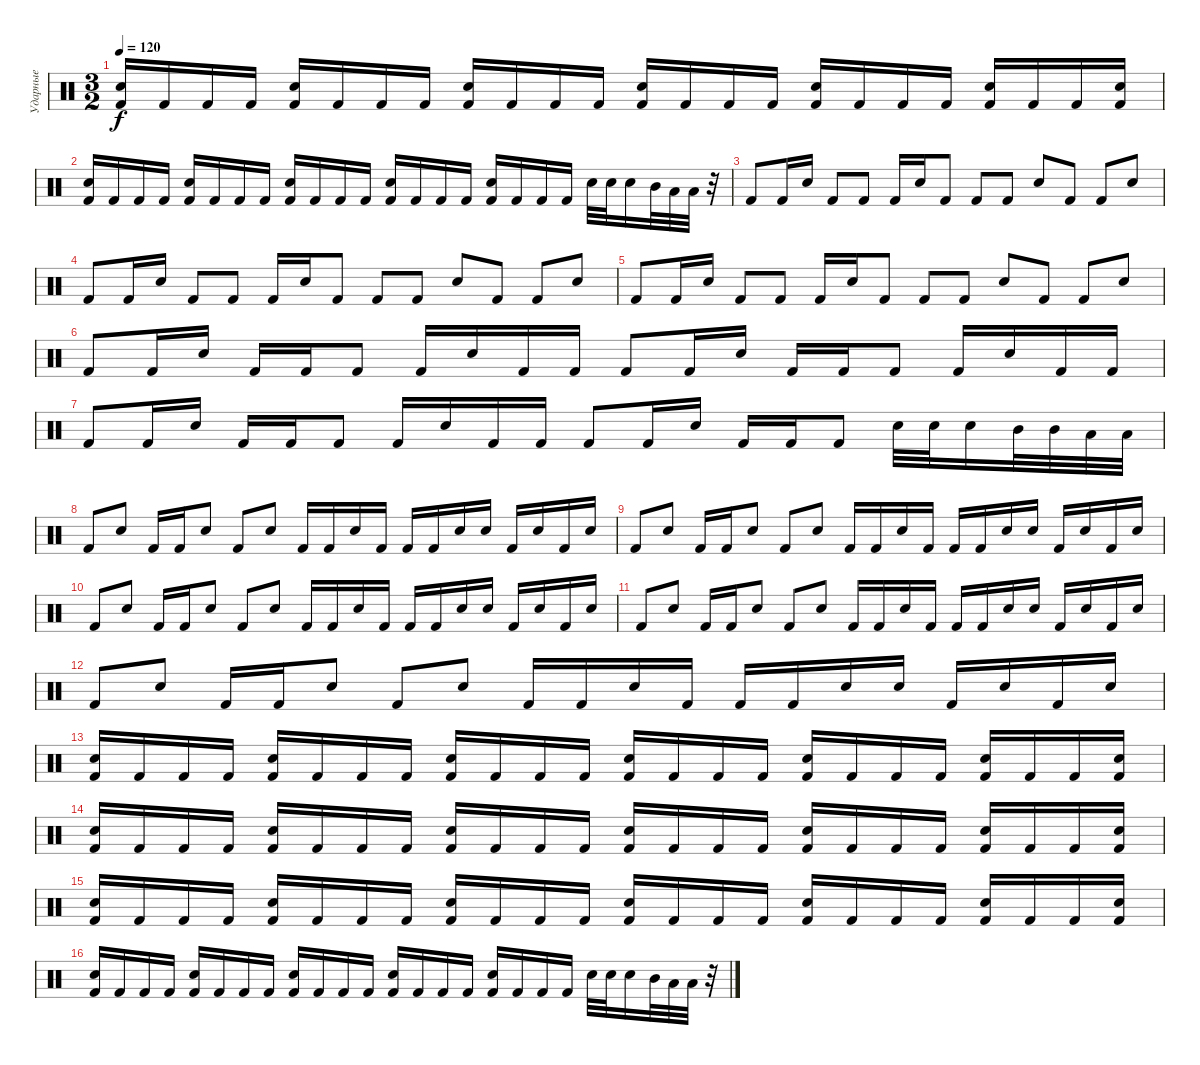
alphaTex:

\track ("Ударные" "Ударные") {instrument percussion}
\staff {score}
\articulation defaults
\ts (3 2)
\tempo 120
\clef neutral
\ks c
("Snare (hit) 2" "Kick (hit) 2").16{dy f} "Kick (hit) 2".16 "Kick (hit) 2".16 "Kick (hit) 2".16 ("Snare (hit) 2" "Kick (hit) 2").16 "Kick (hit) 2".16 "Kick (hit) 2".16 "Kick (hit) 2".16 ("Snare (hit) 2" "Kick (hit) 2").16 "Kick (hit) 2".16 "Kick (hit) 2".16 "Kick (hit) 2".16 ("Snare (hit) 2" "Kick (hit) 2").16 "Kick (hit) 2".16 "Kick (hit) 2".16 "Kick (hit) 2".16 ("Snare (hit) 2" "Kick (hit) 2").16 "Kick (hit) 2".16 "Kick (hit) 2".16 "Kick (hit) 2".16 ("Snare (hit) 2" "Kick (hit) 2").16 "Kick (hit) 2".16 "Kick (hit) 2".16 ("Snare (hit) 2" "Kick (hit) 2").16 |
("Snare (hit) 2" "Kick (hit) 2").16 "Kick (hit) 2".16 "Kick (hit) 2".16 "Kick (hit) 2".16 ("Snare (hit) 2" "Kick (hit) 2").16 "Kick (hit) 2".16 "Kick (hit) 2".16 "Kick (hit) 2".16 ("Snare (hit) 2" "Kick (hit) 2").16 "Kick (hit) 2".16 "Kick (hit) 2".16 "Kick (hit) 2".16 ("Snare (hit) 2" "Kick (hit) 2").16 "Kick (hit) 2".16 "Kick (hit) 2".16 "Kick (hit) 2".16 ("Snare (hit) 2" "Kick (hit) 2").16 "Kick (hit) 2".16 "Kick (hit) 2".16 "Kick (hit) 2".16 "Snare (hit) 2".32 "Snare (hit) 2".32 "Snare (hit) 2".16 "Mid Tom (hit)".32 "Low Tom (hit)".32 "Low Tom (hit)".32 r.32 |
"Kick (hit) 2".8 "Kick (hit) 2".16 "Snare (hit) 2".16 "Kick (hit) 2".8 "Kick (hit) 2".8 "Kick (hit) 2".16 "Snare (hit) 2".16 "Kick (hit) 2".8 "Kick (hit) 2".8 "Kick (hit) 2".8 "Snare (hit) 2".8 "Kick (hit) 2".8 "Kick (hit) 2".8 "Snare (hit) 2".8 |
"Kick (hit) 2".8 "Kick (hit) 2".16 "Snare (hit) 2".16 "Kick (hit) 2".8 "Kick (hit) 2".8 "Kick (hit) 2".16 "Snare (hit) 2".16 "Kick (hit) 2".8 "Kick (hit) 2".8 "Kick (hit) 2".8 "Snare (hit) 2".8 "Kick (hit) 2".8 "Kick (hit) 2".8 "Snare (hit) 2".8 |
"Kick (hit) 2".8 "Kick (hit) 2".16 "Snare (hit) 2".16 "Kick (hit) 2".8 "Kick (hit) 2".8 "Kick (hit) 2".16 "Snare (hit) 2".16 "Kick (hit) 2".8 "Kick (hit) 2".8 "Kick (hit) 2".8 "Snare (hit) 2".8 "Kick (hit) 2".8 "Kick (hit) 2".8 "Snare (hit) 2".8 |
"Kick (hit) 2".8 "Kick (hit) 2".16 "Snare (hit) 2".16 "Kick (hit) 2".16 "Kick (hit) 2".16 "Kick (hit) 2".8 "Kick (hit) 2".16 "Snare (hit) 2".16 "Kick (hit) 2".16 "Kick (hit) 2".16 "Kick (hit) 2".8 "Kick (hit) 2".16 "Snare (hit) 2".16 "Kick (hit) 2".16 "Kick (hit) 2".16 "Kick (hit) 2".8 "Kick (hit) 2".16 "Snare (hit) 2".16 "Kick (hit) 2".16 "Kick (hit) 2".16 |
"Kick (hit) 2".8 "Kick (hit) 2".16 "Snare (hit) 2".16 "Kick (hit) 2".16 "Kick (hit) 2".16 "Kick (hit) 2".8 "Kick (hit) 2".16 "Snare (hit) 2".16 "Kick (hit) 2".16 "Kick (hit) 2".16 "Kick (hit) 2".8 "Kick (hit) 2".16 "Snare (hit) 2".16 "Kick (hit) 2".16 "Kick (hit) 2".16 "Kick (hit) 2".8 "Snare (hit) 2".32 "Snare (hit) 2".32 "Snare (hit) 2".16 "Mid Tom (hit)".32 "Mid Tom (hit)".32 "Low Tom (hit)".32 "Low Tom (hit)".32 |
"Kick (hit) 2".8 "Snare (hit) 2".8 "Kick (hit) 2".16 "Kick (hit) 2".16 "Snare (hit) 2".8 "Kick (hit) 2".8 "Snare (hit) 2".8 "Kick (hit) 2".16 "Kick (hit) 2".16 "Snare (hit) 2".16 "Kick (hit) 2".16 "Kick (hit) 2".16 "Kick (hit) 2".16 "Snare (hit) 2".16 "Snare (hit) 2".16 "Kick (hit) 2".16 "Snare (hit) 2".16 "Kick (hit) 2".16 "Snare (hit) 2".16 |
"Kick (hit) 2".8 "Snare (hit) 2".8 "Kick (hit) 2".16 "Kick (hit) 2".16 "Snare (hit) 2".8 "Kick (hit) 2".8 "Snare (hit) 2".8 "Kick (hit) 2".16 "Kick (hit) 2".16 "Snare (hit) 2".16 "Kick (hit) 2".16 "Kick (hit) 2".16 "Kick (hit) 2".16 "Snare (hit) 2".16 "Snare (hit) 2".16 "Kick (hit) 2".16 "Snare (hit) 2".16 "Kick (hit) 2".16 "Snare (hit) 2".16 |
"Kick (hit) 2".8 "Snare (hit) 2".8 "Kick (hit) 2".16 "Kick (hit) 2".16 "Snare (hit) 2".8 "Kick (hit) 2".8 "Snare (hit) 2".8 "Kick (hit) 2".16 "Kick (hit) 2".16 "Snare (hit) 2".16 "Kick (hit) 2".16 "Kick (hit) 2".16 "Kick (hit) 2".16 "Snare (hit) 2".16 "Snare (hit) 2".16 "Kick (hit) 2".16 "Snare (hit) 2".16 "Kick (hit) 2".16 "Snare (hit) 2".16 |
"Kick (hit) 2".8 "Snare (hit) 2".8 "Kick (hit) 2".16 "Kick (hit) 2".16 "Snare (hit) 2".8 "Kick (hit) 2".8 "Snare (hit) 2".8 "Kick (hit) 2".16 "Kick (hit) 2".16 "Snare (hit) 2".16 "Kick (hit) 2".16 "Kick (hit) 2".16 "Kick (hit) 2".16 "Snare (hit) 2".16 "Snare (hit) 2".16 "Kick (hit) 2".16 "Snare (hit) 2".16 "Kick (hit) 2".16 "Snare (hit) 2".16 |
"Kick (hit) 2".8 "Snare (hit) 2".8 "Kick (hit) 2".16 "Kick (hit) 2".16 "Snare (hit) 2".8 "Kick (hit) 2".8 "Snare (hit) 2".8 "Kick (hit) 2".16 "Kick (hit) 2".16 "Snare (hit) 2".16 "Kick (hit) 2".16 "Kick (hit) 2".16 "Kick (hit) 2".16 "Snare (hit) 2".16 "Snare (hit) 2".16 "Kick (hit) 2".16 "Snare (hit) 2".16 "Kick (hit) 2".16 "Snare (hit) 2".16 |
("Snare (hit) 2" "Kick (hit) 2").16 "Kick (hit) 2".16 "Kick (hit) 2".16 "Kick (hit) 2".16 ("Snare (hit) 2" "Kick (hit) 2").16 "Kick (hit) 2".16 "Kick (hit) 2".16 "Kick (hit) 2".16 ("Snare (hit) 2" "Kick (hit) 2").16 "Kick (hit) 2".16 "Kick (hit) 2".16 "Kick (hit) 2".16 ("Snare (hit) 2" "Kick (hit) 2").16 "Kick (hit) 2".16 "Kick (hit) 2".16 "Kick (hit) 2".16 ("Snare (hit) 2" "Kick (hit) 2").16 "Kick (hit) 2".16 "Kick (hit) 2".16 "Kick (hit) 2".16 ("Snare (hit) 2" "Kick (hit) 2").16 "Kick (hit) 2".16 "Kick (hit) 2".16 ("Snare (hit) 2" "Kick (hit) 2").16 |
("Snare (hit) 2" "Kick (hit) 2").16 "Kick (hit) 2".16 "Kick (hit) 2".16 "Kick (hit) 2".16 ("Snare (hit) 2" "Kick (hit) 2").16 "Kick (hit) 2".16 "Kick (hit) 2".16 "Kick (hit) 2".16 ("Snare (hit) 2" "Kick (hit) 2").16 "Kick (hit) 2".16 "Kick (hit) 2".16 "Kick (hit) 2".16 ("Snare (hit) 2" "Kick (hit) 2").16 "Kick (hit) 2".16 "Kick (hit) 2".16 "Kick (hit) 2".16 ("Snare (hit) 2" "Kick (hit) 2").16 "Kick (hit) 2".16 "Kick (hit) 2".16 "Kick (hit) 2".16 ("Snare (hit) 2" "Kick (hit) 2").16 "Kick (hit) 2".16 "Kick (hit) 2".16 ("Snare (hit) 2" "Kick (hit) 2").16 |
("Snare (hit) 2" "Kick (hit) 2").16 "Kick (hit) 2".16 "Kick (hit) 2".16 "Kick (hit) 2".16 ("Snare (hit) 2" "Kick (hit) 2").16 "Kick (hit) 2".16 "Kick (hit) 2".16 "Kick (hit) 2".16 ("Snare (hit) 2" "Kick (hit) 2").16 "Kick (hit) 2".16 "Kick (hit) 2".16 "Kick (hit) 2".16 ("Snare (hit) 2" "Kick (hit) 2").16 "Kick (hit) 2".16 "Kick (hit) 2".16 "Kick (hit) 2".16 ("Snare (hit) 2" "Kick (hit) 2").16 "Kick (hit) 2".16 "Kick (hit) 2".16 "Kick (hit) 2".16 ("Snare (hit) 2" "Kick (hit) 2").16 "Kick (hit) 2".16 "Kick (hit) 2".16 ("Snare (hit) 2" "Kick (hit) 2").16 |
("Snare (hit) 2" "Kick (hit) 2").16 "Kick (hit) 2".16 "Kick (hit) 2".16 "Kick (hit) 2".16 ("Snare (hit) 2" "Kick (hit) 2").16 "Kick (hit) 2".16 "Kick (hit) 2".16 "Kick (hit) 2".16 ("Snare (hit) 2" "Kick (hit) 2").16 "Kick (hit) 2".16 "Kick (hit) 2".16 "Kick (hit) 2".16 ("Snare (hit) 2" "Kick (hit) 2").16 "Kick (hit) 2".16 "Kick (hit) 2".16 "Kick (hit) 2".16 ("Snare (hit) 2" "Kick (hit) 2").16 "Kick (hit) 2".16 "Kick (hit) 2".16 "Kick (hit) 2".16 "Snare (hit) 2".32 "Snare (hit) 2".32 "Snare (hit) 2".16 "Mid Tom (hit)".32 "Low Tom (hit)".32 "Low Tom (hit)".32 r.32
